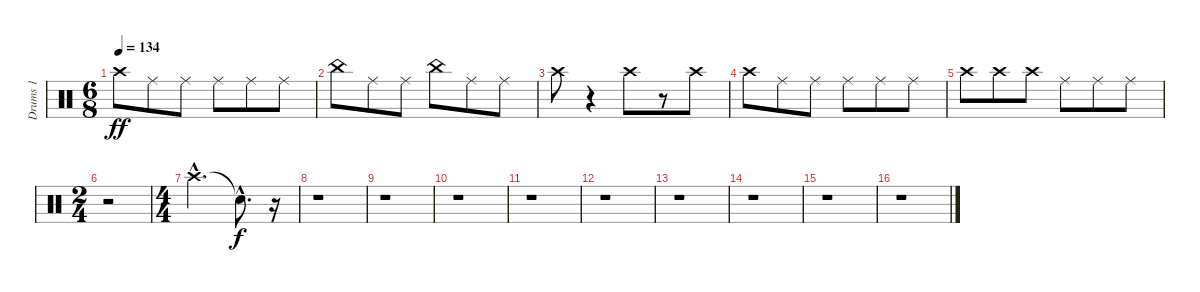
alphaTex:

\track ("Drums 1" "Drums 1") {instrument percussion}
\staff {score}
\articulation defaults
\ts (6 8)
\tempo 134
\clef neutral
\ks c "Crash high (hit)".8{dy ff} "Ride (middle)".8 "Ride (middle)".8 "Ride (middle)".8 "Ride (middle)".8 "Ride (middle)".8
|
"China (hit)".8 "Ride (middle)".8 "Ride (middle)".8 "China (hit)".8 "Ride (middle)".8 "Ride (middle)".8 |
"Crash high (hit)".8 r.4 "Crash high (hit)".8 r.8 "Crash high (hit)".8 |
"Crash high (hit)".8 "Ride (middle)".8 "Ride (middle)".8 "Ride (middle)".8 "Ride (middle)".8 "Ride (middle)".8 |
"Crash high (hit)".8 "Crash high (hit)".8 "Crash high (hit)".8 "Ride (middle)".8 "Ride (middle)".8 "Ride (middle)".8 |
\ts (2 4)
r.2 |
\ts (4 4)
"Crash high (hit)"{hac}.2{d} "Snare (hit)"{hac t}.8{d dy f} r.16 |
r.1 |
r.1 |
r.1 |
r.1 |
r.1 |
r.1 |
r.1 |
r.1 |
r.1
